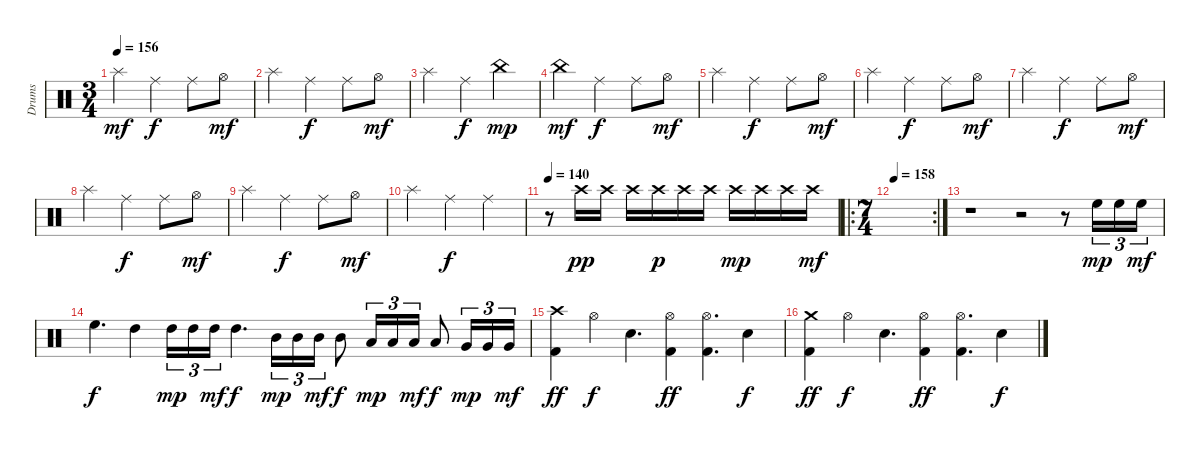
\track ("Drums" "Drums") {instrument percussion}
\staff {score}
\articulation defaults
\ts (3 4)
\tempo 156
\clef neutral
\ks c "Splash (hit)".4{dy mf} "Ride (middle)".4{dy f} "Ride (middle)".8 "Hi-Hat (open)".8{dy mf}
|
"Splash (hit)".4 "Ride (middle)".4{dy f} "Ride (middle)".8 "Hi-Hat (open)".8{dy mf} |
"Splash (hit)".4 "Ride (middle)".4{dy f} "China (hit)".4{dy mp} |
"China (hit)".4{dy mf} "Ride (middle)".4{dy f} "Ride (middle)".8 "Hi-Hat (open)".8{dy mf} |
"Splash (hit)".4 "Ride (middle)".4{dy f} "Ride (middle)".8 "Hi-Hat (open)".8{dy mf} |
"Splash (hit)".4 "Ride (middle)".4{dy f} "Ride (middle)".8 "Hi-Hat (open)".8{dy mf} |
"Splash (hit)".4 "Ride (middle)".4{dy f} "Ride (middle)".8 "Hi-Hat (open)".8{dy mf} |
"Splash (hit)".4 "Ride (middle)".4{dy f} "Ride (middle)".8 "Hi-Hat (open)".8{dy mf} |
"Splash (hit)".4 "Ride (middle)".4{dy f} "Ride (middle)".8 "Hi-Hat (open)".8{dy mf} |
"Splash (hit)".4 "Ride (middle)".4{dy f} "Ride (middle)".4 |
\tempo 140
r.8 "Crash high (hit)".16{dy pp} "Crash high (hit)".16 "Crash high (hit)".16 "Crash high (hit)".16{dy p} "Crash high (hit)".16 "Crash high (hit)".16 "Crash high (hit)".16{dy mp} "Crash high (hit)".16 "Crash high (hit)".16 "Crash high (hit)".16{dy mf} |
\ro
\rc 2
\ts (7 4)
\tempo 158
|
r.1 r.2 r.8 "High Floor Tom (hit)".16{tu (3 2) dy mp} "High Floor Tom (hit)".16{tu (3 2)} "High Floor Tom (hit)".16{tu (3 2) dy mf} |
"High Floor Tom (hit)".4{d dy f} "High Tom (hit)".4 "High Tom (hit)".16{tu (3 2) dy mp} "High Tom (hit)".16{tu (3 2)} "High Tom (hit)".16{tu (3 2) dy mf} "High Tom (hit)".4{d dy f} "Mid Tom (hit)".16{tu (3 2) dy mp} "Mid Tom (hit)".16{tu (3 2)} "Mid Tom (hit)".16{tu (3 2) dy mf} "Mid Tom (hit)".8{dy f} "Low Tom (hit)".16{tu (3 2) dy mp} "Low Tom (hit)".16{tu (3 2)} "Low Tom (hit)".16{tu (3 2) dy mf} "Low Tom (hit)".8{dy f} "Very Low Tom (hit)".16{tu (3 2) dy mp} "Very Low Tom (hit)".16{tu (3 2)} "Very Low Tom (hit)".16{tu (3 2) dy mf} |
("Crash high (hit)" "Kick (hit) 2").4{dy ff} "Hi-Hat (open)".4{dy f} "Electric Snare (hit)".4{d} ("Hi-Hat (open)" "Kick (hit) 2").4{dy ff} ("Hi-Hat (open)" "Kick (hit) 2").4{d} "Electric Snare (hit)".4{dy f} |
("Crash medium (hit)" "Kick (hit) 2").4{dy ff} "Hi-Hat (open)".4{dy f} "Electric Snare (hit)".4{d} ("Hi-Hat (open)" "Kick (hit) 2").4{dy ff} ("Hi-Hat (open)" "Kick (hit) 2").4{d} "Electric Snare (hit)".4{dy f}
